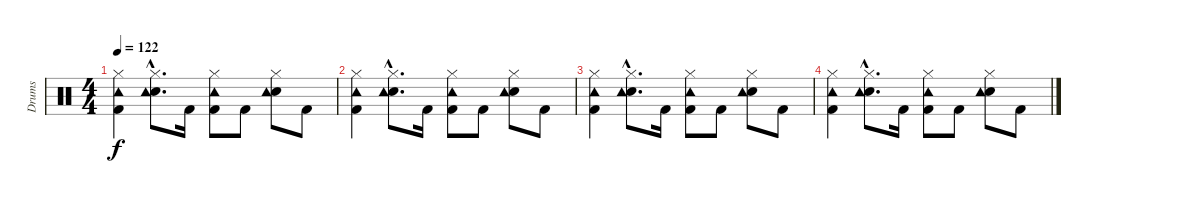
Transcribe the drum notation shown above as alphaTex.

\track ("Drums" "Drums") {instrument percussion}
\staff {score}
\articulation defaults
\ts (4 4)
\tempo 122
\clef neutral
\ks c
("Hi-Hat (closed)" "Kick (hit) 2" "Tambourine (hit)").4{dy f} ("Hi-Hat (closed)"{hac} "Electric Snare (hit)"{hac} "Tambourine (hit)"{hac}).8{d} "Kick (hit) 2".16 ("Hi-Hat (closed)" "Kick (hit) 2" "Tambourine (hit)").8 "Kick (hit) 2".8 ("Hi-Hat (closed)" "Electric Snare (hit)" "Tambourine (hit)").8 "Kick (hit) 2".8 |
("Hi-Hat (closed)" "Kick (hit) 2" "Tambourine (hit)").4 ("Hi-Hat (closed)"{hac} "Electric Snare (hit)"{hac} "Tambourine (hit)"{hac}).8{d} "Kick (hit) 2".16 ("Hi-Hat (closed)" "Kick (hit) 2" "Tambourine (hit)").8 "Kick (hit) 2".8 ("Hi-Hat (closed)" "Electric Snare (hit)" "Tambourine (hit)").8 "Kick (hit) 2".8 |
("Hi-Hat (closed)" "Kick (hit) 2" "Tambourine (hit)").4 ("Hi-Hat (closed)"{hac} "Electric Snare (hit)"{hac} "Tambourine (hit)"{hac}).8{d} "Kick (hit) 2".16 ("Hi-Hat (closed)" "Kick (hit) 2" "Tambourine (hit)").8 "Kick (hit) 2".8 ("Hi-Hat (closed)" "Electric Snare (hit)" "Tambourine (hit)").8 "Kick (hit) 2".8 |
("Hi-Hat (closed)" "Kick (hit) 2" "Tambourine (hit)").4 ("Hi-Hat (closed)"{hac} "Electric Snare (hit)"{hac} "Tambourine (hit)"{hac}).8{d} "Kick (hit) 2".16 ("Hi-Hat (closed)" "Kick (hit) 2" "Tambourine (hit)").8 "Kick (hit) 2".8 ("Hi-Hat (closed)" "Electric Snare (hit)" "Tambourine (hit)").8 "Kick (hit) 2".8
